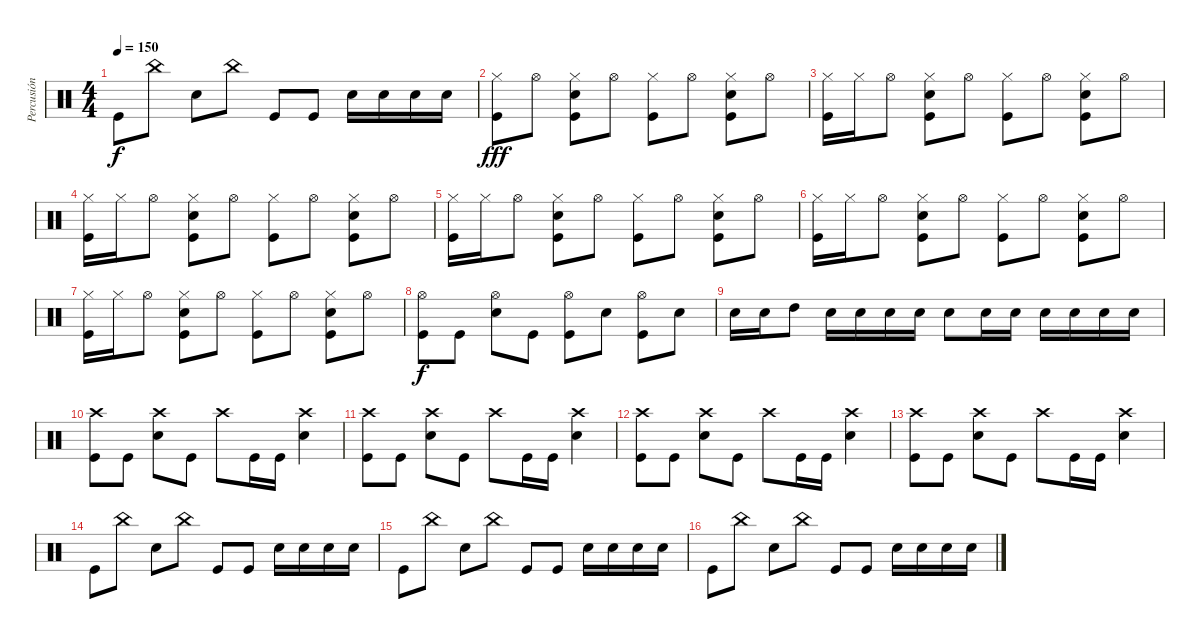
\track ("Percusión" "Percusión") {instrument percussion}
\staff {score}
\articulation defaults
\ts (4 4)
\tempo 150
\clef neutral
\ks c "Kick (hit)".8{dy f} "China (hit)".8 "Snare (hit) 2".8 "China (hit)".8 "Kick (hit)".8 "Kick (hit)".8 "Snare (hit) 2".16 "Snare (hit) 2".16 "Snare (hit) 2".16 "Snare (hit) 2".16
|
("Hi-Hat (closed)" "Kick (hit)").8{dy fff} "Hi-Hat (open)".8 ("Kick (hit)" "Snare (hit) 2" "Hi-Hat (closed)").8 "Hi-Hat (open)".8 ("Kick (hit)" "Hi-Hat (closed)").8 "Hi-Hat (open)".8 ("Snare (hit) 2" "Kick (hit)" "Hi-Hat (closed)").8 "Hi-Hat (open)".8 |
("Kick (hit)" "Hi-Hat (closed)").16 "Hi-Hat (closed)".16 "Hi-Hat (open)".8 ("Hi-Hat (closed)" "Kick (hit)" "Snare (hit) 2").8 "Hi-Hat (open)".8 ("Kick (hit)" "Hi-Hat (closed)").8 "Hi-Hat (open)".8 ("Snare (hit) 2" "Kick (hit)" "Hi-Hat (closed)").8 "Hi-Hat (open)".8 |
("Kick (hit)" "Hi-Hat (closed)").16 "Hi-Hat (closed)".16 "Hi-Hat (open)".8 ("Hi-Hat (closed)" "Kick (hit)" "Snare (hit) 2").8 "Hi-Hat (open)".8 ("Kick (hit)" "Hi-Hat (closed)").8 "Hi-Hat (open)".8 ("Snare (hit) 2" "Kick (hit)" "Hi-Hat (closed)").8 "Hi-Hat (open)".8 |
("Kick (hit)" "Hi-Hat (closed)").16 "Hi-Hat (closed)".16 "Hi-Hat (open)".8 ("Hi-Hat (closed)" "Kick (hit)" "Snare (hit) 2").8 "Hi-Hat (open)".8 ("Kick (hit)" "Hi-Hat (closed)").8 "Hi-Hat (open)".8 ("Snare (hit) 2" "Kick (hit)" "Hi-Hat (closed)").8 "Hi-Hat (open)".8 |
("Kick (hit)" "Hi-Hat (closed)").16 "Hi-Hat (closed)".16 "Hi-Hat (open)".8 ("Hi-Hat (closed)" "Kick (hit)" "Snare (hit) 2").8 "Hi-Hat (open)".8 ("Kick (hit)" "Hi-Hat (closed)").8 "Hi-Hat (open)".8 ("Snare (hit) 2" "Kick (hit)" "Hi-Hat (closed)").8 "Hi-Hat (open)".8 |
("Kick (hit)" "Hi-Hat (closed)").16 "Hi-Hat (closed)".16 "Hi-Hat (open)".8 ("Hi-Hat (closed)" "Kick (hit)" "Snare (hit) 2").8 "Hi-Hat (open)".8 ("Kick (hit)" "Hi-Hat (closed)").8 "Hi-Hat (open)".8 ("Snare (hit) 2" "Kick (hit)" "Hi-Hat (closed)").8 "Hi-Hat (open)".8 |
("Kick (hit)" "Hi-Hat (open)").8{dy f} "Kick (hit)".8 ("Hi-Hat (open)" "Snare (hit) 2").8 "Kick (hit)".8 ("Kick (hit)" "Hi-Hat (open)").8 "Snare (hit) 2".8 ("Kick (hit)" "Hi-Hat (open)").8 "Snare (hit) 2".8 |
"Snare (hit) 2".16 "Snare (hit) 2".16 "High Tom (hit)".8 "Snare (hit) 2".16 "Snare (hit) 2".16 "Snare (hit) 2".16 "Snare (hit) 2".16 "Snare (hit) 2".8 "Snare (hit) 2".16 "Snare (hit) 2".16 "Snare (hit) 2".16 "Snare (hit) 2".16 "Snare (hit) 2".16 "Snare (hit) 2".16 |
("Kick (hit)" "Crash high (hit)").8 "Kick (hit)".8 ("Snare (hit) 2" "Crash high (hit)").8 "Kick (hit)".8 "Crash high (hit)".8 "Kick (hit)".16 "Kick (hit)".16 ("Crash high (hit)" "Snare (hit) 2").4 |
("Kick (hit)" "Crash high (hit)").8 "Kick (hit)".8 ("Snare (hit) 2" "Crash high (hit)").8 "Kick (hit)".8 "Crash high (hit)".8 "Kick (hit)".16 "Kick (hit)".16 ("Crash high (hit)" "Snare (hit) 2").4 |
("Kick (hit)" "Crash high (hit)").8 "Kick (hit)".8 ("Snare (hit) 2" "Crash high (hit)").8 "Kick (hit)".8 "Crash high (hit)".8 "Kick (hit)".16 "Kick (hit)".16 ("Crash high (hit)" "Snare (hit) 2").4 |
("Kick (hit)" "Crash high (hit)").8 "Kick (hit)".8 ("Snare (hit) 2" "Crash high (hit)").8 "Kick (hit)".8 "Crash high (hit)".8 "Kick (hit)".16 "Kick (hit)".16 ("Crash high (hit)" "Snare (hit) 2").4 |
"Kick (hit)".8 "China (hit)".8 "Snare (hit) 2".8 "China (hit)".8 "Kick (hit)".8 "Kick (hit)".8 "Snare (hit) 2".16 "Snare (hit) 2".16 "Snare (hit) 2".16 "Snare (hit) 2".16 |
"Kick (hit)".8 "China (hit)".8 "Snare (hit) 2".8 "China (hit)".8 "Kick (hit)".8 "Kick (hit)".8 "Snare (hit) 2".16 "Snare (hit) 2".16 "Snare (hit) 2".16 "Snare (hit) 2".16 |
"Kick (hit)".8 "China (hit)".8 "Snare (hit) 2".8 "China (hit)".8 "Kick (hit)".8 "Kick (hit)".8 "Snare (hit) 2".16 "Snare (hit) 2".16 "Snare (hit) 2".16 "Snare (hit) 2".16
